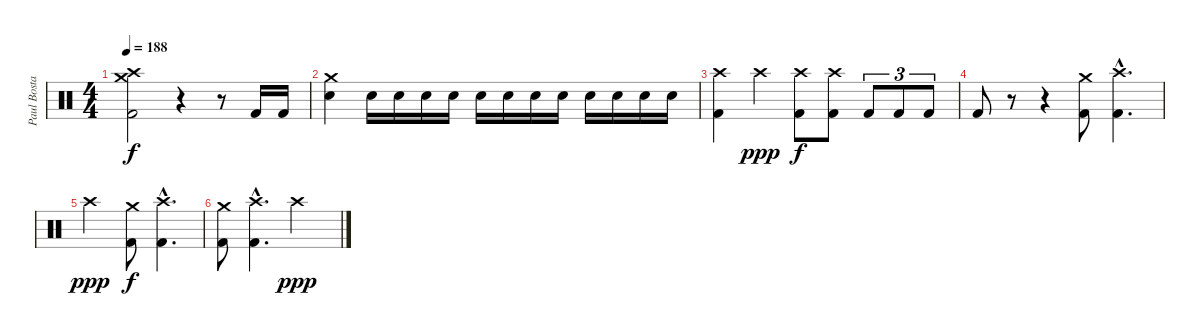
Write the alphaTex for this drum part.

\track ("Paul Bostaph" "Paul Bosta") {instrument percussion}
\staff {score}
\articulation defaults
\ts (4 4)
\tempo 188
\clef neutral
\ks c
("Crash high (hit)" "Kick (hit) 2" "Crash medium (hit)").2{dy f} r.4 r.8 "Kick (hit) 2".16 "Kick (hit) 2".16 |
("Electric Snare (hit)" "Crash medium (hit)").4 "Electric Snare (hit)".16 "Electric Snare (hit)".16 "Electric Snare (hit)".16 "Electric Snare (hit)".16 "Electric Snare (hit)".16 "Electric Snare (hit)".16 "Electric Snare (hit)".16 "Electric Snare (hit)".16 "Electric Snare (hit)".16 "Electric Snare (hit)".16 "Electric Snare (hit)".16 "Electric Snare (hit)".16 |
("Crash high (hit)" "Kick (hit) 2").4 "Crash high (hit)".4{dy ppp} ("Crash high (hit)" "Kick (hit) 2").8{dy f} ("Crash high (hit)" "Kick (hit) 2").8 "Kick (hit) 2".8{tu (3 2)} "Kick (hit) 2".8{tu (3 2)} "Kick (hit) 2".8{tu (3 2)} |
"Kick (hit) 2".8 r.8 r.4 ("Crash medium (hit)" "Kick (hit) 2").8 ("Crash high (hit)"{hac} "Kick (hit) 2"{hac}).4{d} |
"Crash high (hit)".2{dy ppp} ("Crash medium (hit)" "Kick (hit) 2").8{dy f} ("Crash high (hit)"{hac} "Kick (hit) 2"{hac}).4{d} |
("Crash medium (hit)" "Kick (hit) 2").8 ("Crash high (hit)"{hac} "Kick (hit) 2"{hac}).4{d} "Crash high (hit)".2{dy ppp}
